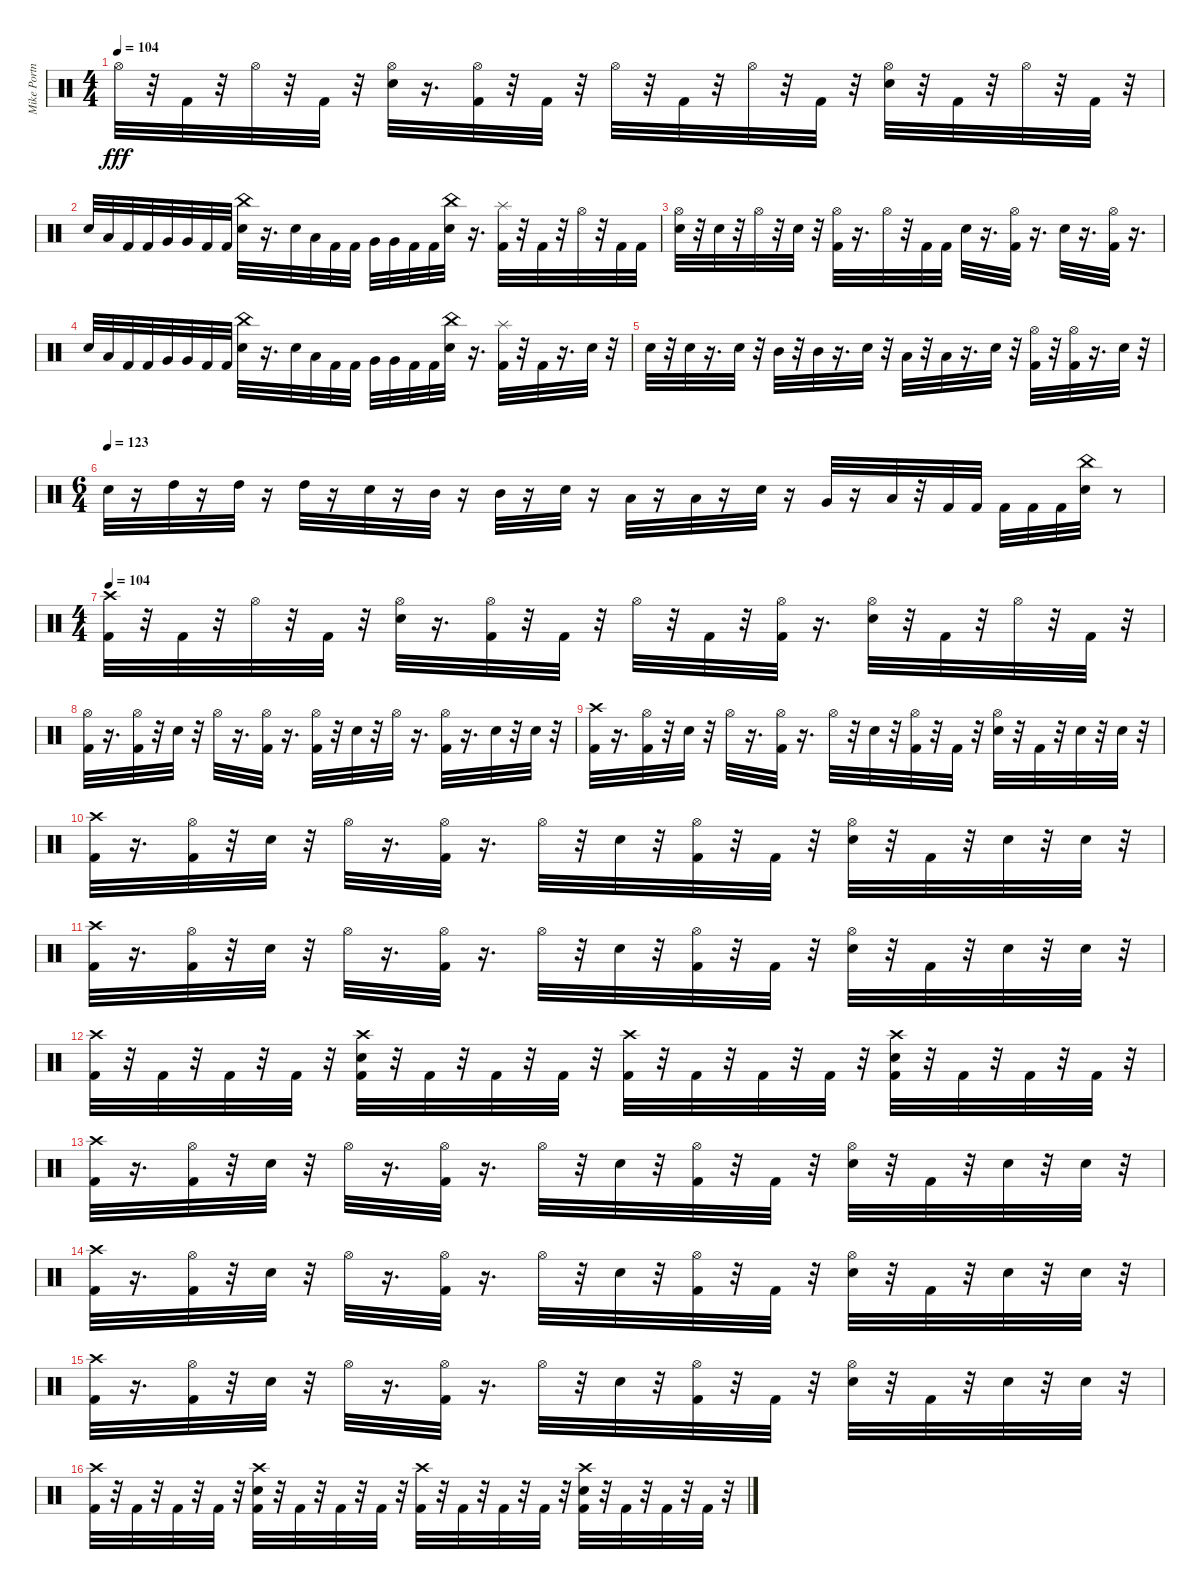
\track ("Mike Portnoy" "Mike Portn") {instrument percussion}
\staff {score}
\articulation defaults
\ts (4 4)
\tempo 104
\clef neutral
\ks c "Hi-Hat (open)".32{dy fff}
r.32 "Kick (hit) 2".32 r.32 "Hi-Hat (open)".32 r.32 "Kick (hit) 2".32 r.32 ("Snare (hit) 2" "Hi-Hat (open)").32 r.16{d} ("Kick (hit) 2" "Hi-Hat (open)").32 r.32 "Kick (hit) 2".32 r.32 "Hi-Hat (open)".32 r.32 "Kick (hit) 2".32 r.32 "Hi-Hat (open)".32 r.32 "Kick (hit) 2".32 r.32 ("Snare (hit) 2" "Hi-Hat (open)").32 r.32 "Kick (hit) 2".32 r.32 "Hi-Hat (open)".32 r.32 "Kick (hit) 2".32 r.32 |
"Snare (hit) 2".32 "Low Tom (hit)".32 "Kick (hit) 2".32 "Kick (hit) 2".32 "Very Low Tom (hit)".32 "Very Low Tom (hit)".32 "Kick (hit) 2".32 "Kick (hit) 2".32 ("Snare (hit) 2" "China (hit)").32 r.16{d} "Snare (hit) 2".32 "Low Tom (hit)".32 "Kick (hit) 2".32 "Kick (hit) 2".32 "Very Low Tom (hit)".32 "Very Low Tom (hit)".32 "Kick (hit) 2".32 "Kick (hit) 2".32 ("Snare (hit) 2" "China (hit)").32 r.16{d} ("Kick (hit) 2" "Splash (hit)").32 r.32 "Kick (hit) 2".32 r.32 "Hi-Hat (open)".32 r.32 "Kick (hit) 2".32 "Kick (hit) 2".32 |
("Snare (hit) 2" "Hi-Hat (open)").32 r.32 "Snare (hit) 2".32 r.32 "Hi-Hat (open)".32 r.32 "Snare (hit) 2".32 r.32 ("Kick (hit) 2" "Hi-Hat (open)").32 r.16{d} "Hi-Hat (open)".32 r.32 "Kick (hit) 2".32 "Kick (hit) 2".32 "Snare (hit) 2".32 r.16{d} ("Kick (hit) 2" "Hi-Hat (open)").32 r.16{d} "Snare (hit) 2".32 r.16{d} ("Kick (hit) 2" "Hi-Hat (open)").32 r.16{d} |
"Snare (hit) 2".32 "Low Tom (hit)".32 "Kick (hit) 2".32 "Kick (hit) 2".32 "Very Low Tom (hit)".32 "Very Low Tom (hit)".32 "Kick (hit) 2".32 "Kick (hit) 2".32 ("Snare (hit) 2" "China (hit)").32 r.16{d} "Snare (hit) 2".32 "Low Tom (hit)".32 "Kick (hit) 2".32 "Kick (hit) 2".32 "Very Low Tom (hit)".32 "Very Low Tom (hit)".32 "Kick (hit) 2".32 "Kick (hit) 2".32 ("Snare (hit) 2" "China (hit)").32 r.16{d} ("Kick (hit) 2" "Splash (hit)").32 r.32 "Kick (hit) 2".32 r.16{d} "Snare (hit) 2".32 r.32 |
"Snare (hit) 2".32 r.32 "Snare (hit) 2".32 r.16{d} "Snare (hit) 2".32 r.32 "Mid Tom (hit)".32 r.32 "Mid Tom (hit)".32 r.16{d} "Snare (hit) 2".32 r.32 "Low Tom (hit)".32 r.32 "Low Tom (hit)".32 r.16{d} "Snare (hit) 2".32 r.32 ("Kick (hit) 2" "Hi-Hat (open)").32 r.32 ("Kick (hit) 2" "Hi-Hat (open)").32 r.16{d} "Snare (hit) 2".32 r.32 |
\ts (6 4)
\tempo (123)
"Snare (hit) 2".32 r.16 "High Tom (hit)".32 r.16 "High Tom (hit)".32 r.16 "High Tom (hit)".32 r.16 "Snare (hit) 2".32 r.16 "Mid Tom (hit)".32 r.16 "Mid Tom (hit)".32 r.16 "Snare (hit) 2".32 r.16 "Low Tom (hit)".32 r.16 "Low Tom (hit)".32 r.16 "Snare (hit) 2".32 r.16 "Very Low Tom (hit)".32 r.16 "Low Floor Tom (hit)".32 r.32 "Kick (hit) 2".32 "Kick (hit) 2".32 "Kick (hit) 2".32 "Kick (hit) 2".32 "Kick (hit) 2".32 ("Snare (hit) 2" "China (hit)").32 r.8 |
\ts (4 4)
\tempo 104
("Kick (hit) 2" "Crash high (hit)").32 r.32 "Kick (hit) 2".32 r.32 "Hi-Hat (open)".32 r.32 "Kick (hit) 2".32 r.32 ("Snare (hit) 2" "Hi-Hat (open)").32 r.16{d} ("Kick (hit) 2" "Hi-Hat (open)").32 r.32 "Kick (hit) 2".32 r.32 "Hi-Hat (open)".32 r.32 "Kick (hit) 2".32 r.32 ("Kick (hit) 2" "Hi-Hat (open)").32 r.16{d} ("Snare (hit) 2" "Hi-Hat (open)").32 r.32 "Kick (hit) 2".32 r.32 "Hi-Hat (open)".32 r.32 "Kick (hit) 2".32 r.32 |
("Kick (hit) 2" "Hi-Hat (open)").32 r.16{d} ("Kick (hit) 2" "Hi-Hat (open)").32 r.32 "Snare (hit) 2".32 r.32 "Hi-Hat (open)".32 r.16{d} ("Kick (hit) 2" "Hi-Hat (open)").32 r.16{d} ("Kick (hit) 2" "Hi-Hat (open)").32 r.32 "Snare (hit) 2".32 r.32 "Hi-Hat (open)".32 r.16{d} ("Kick (hit) 2" "Hi-Hat (open)").32 r.16{d} "Snare (hit) 2".32 r.32 "Snare (hit) 2".32 r.32 |
("Kick (hit) 2" "Crash high (hit)").32 r.16{d} ("Kick (hit) 2" "Hi-Hat (open)").32 r.32 "Snare (hit) 2".32 r.32 "Hi-Hat (open)".32 r.16{d} ("Kick (hit) 2" "Hi-Hat (open)").32 r.16{d} "Hi-Hat (open)".32 r.32 "Snare (hit) 2".32 r.32 ("Kick (hit) 2" "Hi-Hat (open)").32 r.32 "Kick (hit) 2".32 r.32 ("Snare (hit) 2" "Hi-Hat (open)").32 r.32 "Kick (hit) 2".32 r.32 "Snare (hit) 2".32 r.32 "Snare (hit) 2".32 r.32 |
("Kick (hit) 2" "Crash high (hit)").32 r.16{d} ("Kick (hit) 2" "Hi-Hat (open)").32 r.32 "Snare (hit) 2".32 r.32 "Hi-Hat (open)".32 r.16{d} ("Kick (hit) 2" "Hi-Hat (open)").32 r.16{d} "Hi-Hat (open)".32 r.32 "Snare (hit) 2".32 r.32 ("Kick (hit) 2" "Hi-Hat (open)").32 r.32 "Kick (hit) 2".32 r.32 ("Snare (hit) 2" "Hi-Hat (open)").32 r.32 "Kick (hit) 2".32 r.32 "Snare (hit) 2".32 r.32 "Snare (hit) 2".32 r.32 |
("Kick (hit) 2" "Crash high (hit)").32 r.16{d} ("Kick (hit) 2" "Hi-Hat (open)").32 r.32 "Snare (hit) 2".32 r.32 "Hi-Hat (open)".32 r.16{d} ("Kick (hit) 2" "Hi-Hat (open)").32 r.16{d} "Hi-Hat (open)".32 r.32 "Snare (hit) 2".32 r.32 ("Kick (hit) 2" "Hi-Hat (open)").32 r.32 "Kick (hit) 2".32 r.32 ("Snare (hit) 2" "Hi-Hat (open)").32 r.32 "Kick (hit) 2".32 r.32 "Snare (hit) 2".32 r.32 "Snare (hit) 2".32 r.32 |
("Kick (hit) 2" "Crash high (hit)").32 r.32 "Kick (hit) 2".32 r.32 "Kick (hit) 2".32 r.32 "Kick (hit) 2".32 r.32 ("Kick (hit) 2" "Crash high (hit)" "Snare (hit) 2").32 r.32 "Kick (hit) 2".32 r.32 "Kick (hit) 2".32 r.32 "Kick (hit) 2".32 r.32 ("Kick (hit) 2" "Crash high (hit)").32 r.32 "Kick (hit) 2".32 r.32 "Kick (hit) 2".32 r.32 "Kick (hit) 2".32 r.32 ("Kick (hit) 2" "Crash high (hit)" "Snare (hit) 2").32 r.32 "Kick (hit) 2".32 r.32 "Kick (hit) 2".32 r.32 "Kick (hit) 2".32 r.32 |
("Kick (hit) 2" "Crash high (hit)").32 r.16{d} ("Kick (hit) 2" "Hi-Hat (open)").32 r.32 "Snare (hit) 2".32 r.32 "Hi-Hat (open)".32 r.16{d} ("Kick (hit) 2" "Hi-Hat (open)").32 r.16{d} "Hi-Hat (open)".32 r.32 "Snare (hit) 2".32 r.32 ("Kick (hit) 2" "Hi-Hat (open)").32 r.32 "Kick (hit) 2".32 r.32 ("Snare (hit) 2" "Hi-Hat (open)").32 r.32 "Kick (hit) 2".32 r.32 "Snare (hit) 2".32 r.32 "Snare (hit) 2".32 r.32 |
("Kick (hit) 2" "Crash high (hit)").32 r.16{d} ("Kick (hit) 2" "Hi-Hat (open)").32 r.32 "Snare (hit) 2".32 r.32 "Hi-Hat (open)".32 r.16{d} ("Kick (hit) 2" "Hi-Hat (open)").32 r.16{d} "Hi-Hat (open)".32 r.32 "Snare (hit) 2".32 r.32 ("Kick (hit) 2" "Hi-Hat (open)").32 r.32 "Kick (hit) 2".32 r.32 ("Snare (hit) 2" "Hi-Hat (open)").32 r.32 "Kick (hit) 2".32 r.32 "Snare (hit) 2".32 r.32 "Snare (hit) 2".32 r.32 |
("Kick (hit) 2" "Crash high (hit)").32 r.16{d} ("Kick (hit) 2" "Hi-Hat (open)").32 r.32 "Snare (hit) 2".32 r.32 "Hi-Hat (open)".32 r.16{d} ("Kick (hit) 2" "Hi-Hat (open)").32 r.16{d} "Hi-Hat (open)".32 r.32 "Snare (hit) 2".32 r.32 ("Kick (hit) 2" "Hi-Hat (open)").32 r.32 "Kick (hit) 2".32 r.32 ("Snare (hit) 2" "Hi-Hat (open)").32 r.32 "Kick (hit) 2".32 r.32 "Snare (hit) 2".32 r.32 "Snare (hit) 2".32 r.32 |
("Kick (hit) 2" "Crash high (hit)").32 r.32 "Kick (hit) 2".32 r.32 "Kick (hit) 2".32 r.32 "Kick (hit) 2".32 r.32 ("Kick (hit) 2" "Crash high (hit)" "Snare (hit) 2").32 r.32 "Kick (hit) 2".32 r.32 "Kick (hit) 2".32 r.32 "Kick (hit) 2".32 r.32 ("Kick (hit) 2" "Crash high (hit)").32 r.32 "Kick (hit) 2".32 r.32 "Kick (hit) 2".32 r.32 "Kick (hit) 2".32 r.32 ("Kick (hit) 2" "Crash high (hit)" "Snare (hit) 2").32 r.32 "Kick (hit) 2".32 r.32 "Kick (hit) 2".32 r.32 "Kick (hit) 2".32 r.32
